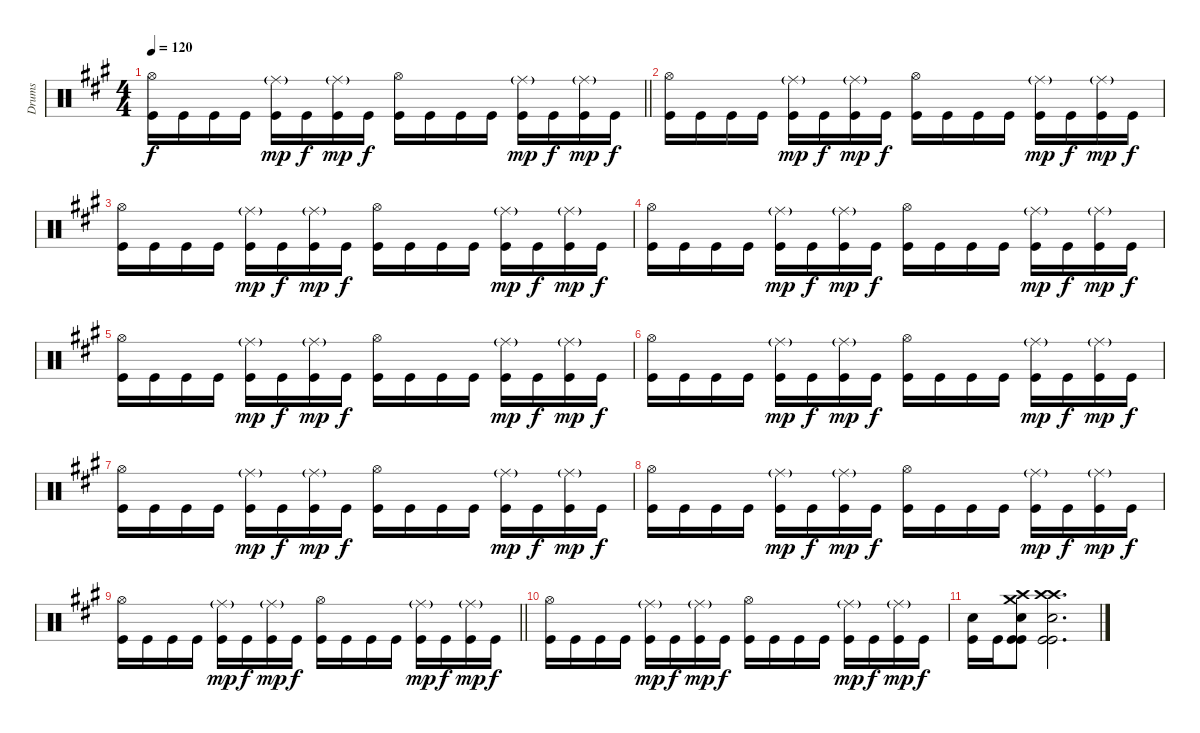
\track ("Drums" "Drums") {instrument percussion}
\staff {score}
\articulation defaults
\ts (4 4)
\tempo 120
\clef neutral
\barLineRight lightlight
\ks a
("Hi-Hat (open)" "Kick (hit)").16{dy f} "Kick (hit)".16 "Kick (hit)".16 "Kick (hit)".16 ("Ride (middle)"{g} "Kick (hit)").16{dy mp} "Kick (hit)".16{dy f} ("Ride (middle)"{g} "Kick (hit)").16{dy mp} "Kick (hit)".16{dy f} ("Hi-Hat (open)" "Kick (hit)").16 "Kick (hit)".16 "Kick (hit)".16 "Kick (hit)".16 ("Ride (middle)"{g} "Kick (hit)").16{dy mp} "Kick (hit)".16{dy f} ("Ride (middle)"{g} "Kick (hit)").16{dy mp} "Kick (hit)".16{dy f} |
("Hi-Hat (open)" "Kick (hit)").16 "Kick (hit)".16 "Kick (hit)".16 "Kick (hit)".16 ("Ride (middle)"{g} "Kick (hit)").16{dy mp} "Kick (hit)".16{dy f} ("Ride (middle)"{g} "Kick (hit)").16{dy mp} "Kick (hit)".16{dy f} ("Hi-Hat (open)" "Kick (hit)").16 "Kick (hit)".16 "Kick (hit)".16 "Kick (hit)".16 ("Ride (middle)"{g} "Kick (hit)").16{dy mp} "Kick (hit)".16{dy f} ("Ride (middle)"{g} "Kick (hit)").16{dy mp} "Kick (hit)".16{dy f} |
("Hi-Hat (open)" "Kick (hit)").16 "Kick (hit)".16 "Kick (hit)".16 "Kick (hit)".16 ("Ride (middle)"{g} "Kick (hit)").16{dy mp} "Kick (hit)".16{dy f} ("Ride (middle)"{g} "Kick (hit)").16{dy mp} "Kick (hit)".16{dy f} ("Hi-Hat (open)" "Kick (hit)").16 "Kick (hit)".16 "Kick (hit)".16 "Kick (hit)".16 ("Ride (middle)"{g} "Kick (hit)").16{dy mp} "Kick (hit)".16{dy f} ("Ride (middle)"{g} "Kick (hit)").16{dy mp} "Kick (hit)".16{dy f} |
("Hi-Hat (open)" "Kick (hit)").16 "Kick (hit)".16 "Kick (hit)".16 "Kick (hit)".16 ("Ride (middle)"{g} "Kick (hit)").16{dy mp} "Kick (hit)".16{dy f} ("Ride (middle)"{g} "Kick (hit)").16{dy mp} "Kick (hit)".16{dy f} ("Hi-Hat (open)" "Kick (hit)").16 "Kick (hit)".16 "Kick (hit)".16 "Kick (hit)".16 ("Ride (middle)"{g} "Kick (hit)").16{dy mp} "Kick (hit)".16{dy f} ("Ride (middle)"{g} "Kick (hit)").16{dy mp} "Kick (hit)".16{dy f} |
("Hi-Hat (open)" "Kick (hit)").16 "Kick (hit)".16 "Kick (hit)".16 "Kick (hit)".16 ("Ride (middle)"{g} "Kick (hit)").16{dy mp} "Kick (hit)".16{dy f} ("Ride (middle)"{g} "Kick (hit)").16{dy mp} "Kick (hit)".16{dy f} ("Hi-Hat (open)" "Kick (hit)").16 "Kick (hit)".16 "Kick (hit)".16 "Kick (hit)".16 ("Ride (middle)"{g} "Kick (hit)").16{dy mp} "Kick (hit)".16{dy f} ("Ride (middle)"{g} "Kick (hit)").16{dy mp} "Kick (hit)".16{dy f} |
("Hi-Hat (open)" "Kick (hit)").16 "Kick (hit)".16 "Kick (hit)".16 "Kick (hit)".16 ("Ride (middle)"{g} "Kick (hit)").16{dy mp} "Kick (hit)".16{dy f} ("Ride (middle)"{g} "Kick (hit)").16{dy mp} "Kick (hit)".16{dy f} ("Hi-Hat (open)" "Kick (hit)").16 "Kick (hit)".16 "Kick (hit)".16 "Kick (hit)".16 ("Ride (middle)"{g} "Kick (hit)").16{dy mp} "Kick (hit)".16{dy f} ("Ride (middle)"{g} "Kick (hit)").16{dy mp} "Kick (hit)".16{dy f} |
("Hi-Hat (open)" "Kick (hit)").16 "Kick (hit)".16 "Kick (hit)".16 "Kick (hit)".16 ("Ride (middle)"{g} "Kick (hit)").16{dy mp} "Kick (hit)".16{dy f} ("Ride (middle)"{g} "Kick (hit)").16{dy mp} "Kick (hit)".16{dy f} ("Hi-Hat (open)" "Kick (hit)").16 "Kick (hit)".16 "Kick (hit)".16 "Kick (hit)".16 ("Ride (middle)"{g} "Kick (hit)").16{dy mp} "Kick (hit)".16{dy f} ("Ride (middle)"{g} "Kick (hit)").16{dy mp} "Kick (hit)".16{dy f} |
("Hi-Hat (open)" "Kick (hit)").16 "Kick (hit)".16 "Kick (hit)".16 "Kick (hit)".16 ("Ride (middle)"{g} "Kick (hit)").16{dy mp} "Kick (hit)".16{dy f} ("Ride (middle)"{g} "Kick (hit)").16{dy mp} "Kick (hit)".16{dy f} ("Hi-Hat (open)" "Kick (hit)").16 "Kick (hit)".16 "Kick (hit)".16 "Kick (hit)".16 ("Ride (middle)"{g} "Kick (hit)").16{dy mp} "Kick (hit)".16{dy f} ("Ride (middle)"{g} "Kick (hit)").16{dy mp} "Kick (hit)".16{dy f} |
\barLineRight lightlight
("Hi-Hat (open)" "Kick (hit)").16 "Kick (hit)".16 "Kick (hit)".16 "Kick (hit)".16 ("Ride (middle)"{g} "Kick (hit)").16{dy mp} "Kick (hit)".16{dy f} ("Ride (middle)"{g} "Kick (hit)").16{dy mp} "Kick (hit)".16{dy f} ("Hi-Hat (open)" "Kick (hit)").16 "Kick (hit)".16 "Kick (hit)".16 "Kick (hit)".16 ("Ride (middle)"{g} "Kick (hit)").16{dy mp} "Kick (hit)".16{dy f} ("Ride (middle)"{g} "Kick (hit)").16{dy mp} "Kick (hit)".16{dy f} |
("Hi-Hat (open)" "Kick (hit)").16 "Kick (hit)".16 "Kick (hit)".16 "Kick (hit)".16 ("Ride (middle)"{g} "Kick (hit)").16{dy mp} "Kick (hit)".16{dy f} ("Ride (middle)"{g} "Kick (hit)").16{dy mp} "Kick (hit)".16{dy f} ("Hi-Hat (open)" "Kick (hit)").16 "Kick (hit)".16 "Kick (hit)".16 "Kick (hit)".16 ("Ride (middle)"{g} "Kick (hit)").16{dy mp} "Kick (hit)".16{dy f} ("Ride (middle)"{g} "Kick (hit)").16{dy mp} "Kick (hit)".16{dy f} |
("Snare (hit) 2" "Kick (hit)").16 "Kick (hit)".16 ("Crash medium (hit)" "Crash high (hit)" "Snare (hit) 2" "Kick (hit)" "Kick (hit)").8 ("Crash high (hit)" "Crash high (hit)" "Snare (hit) 2" "Kick (hit)" "Kick (hit)").2{d}
